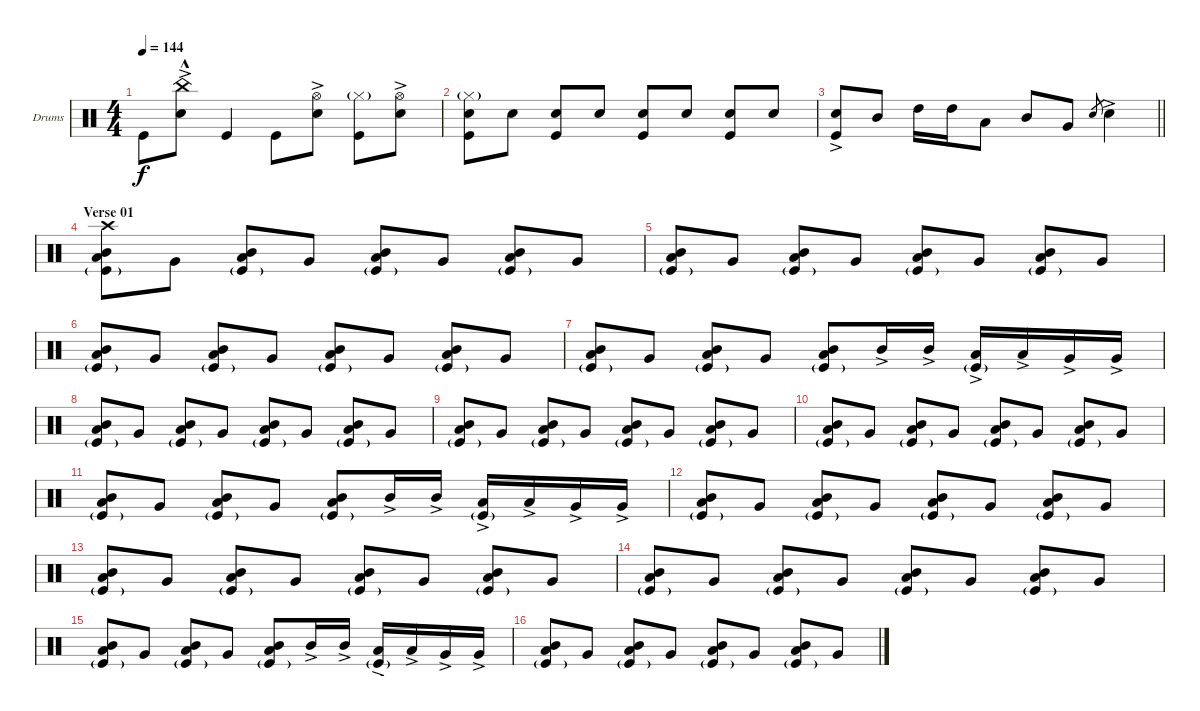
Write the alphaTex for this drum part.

\bracketExtendMode groupsimilarinstruments
\firstSystemTrackNameOrientation horizontal
\otherSystemsTrackNameOrientation horizontal
\track ("Drumkit" "Drums") {instrument percussion}
\staff {score}
\articulation defaults
\ts (4 4)
\tempo 144
\clef neutral
\ks c "Kick (hit)".8{dy f}
("Snare (hit) 2"{ac} "China (hit)"{hac}).8 "Kick (hit)".4 "Kick (hit)".8 ("Hi-Hat (open)" "Snare (hit) 2"{ac}).8 ("Kick (hit)" "Hi-Hat (closed)"{g}).8 ("Hi-Hat (open)" "Snare (hit) 2"{ac}).8 |
("Snare (hit) 2" "Kick (hit)" "Hi-Hat (closed)"{g}).8 "Snare (hit) 2".8 ("Snare (hit) 2" "Kick (hit)").8 "Snare (hit) 2".8 ("Snare (hit) 2" "Kick (hit)").8 "Snare (hit) 2".8 ("Snare (hit) 2" "Kick (hit)").8 "Snare (hit) 2".8 |
\barLineRight lightlight
("Snare (hit) 2"{ac} "Kick (hit)").8 "Mid Tom (hit)".8 "High Tom (hit)".16 "High Tom (hit)".16 "Low Tom (hit)".8 "Mid Tom (hit)".8 "Very Low Tom (hit)".8 "Snare (hit) 2".8{gr} "Snare (hit) 2"{ac}.4 |
\section ("" "Verse 01")
("Crash high (hit)" "Low Tom (hit)" "Mid Tom (hit)" "Kick (hit)"{g}).8 "Very Low Tom (hit)".8 ("Low Tom (hit)" "Mid Tom (hit)" "Kick (hit)"{g}).8 "Very Low Tom (hit)".8 ("Low Tom (hit)" "Mid Tom (hit)" "Kick (hit)"{g}).8 "Very Low Tom (hit)".8 ("Low Tom (hit)" "Mid Tom (hit)" "Kick (hit)"{g}).8 "Very Low Tom (hit)".8 |
("Low Tom (hit)" "Mid Tom (hit)" "Kick (hit)"{g}).8 "Very Low Tom (hit)".8 ("Low Tom (hit)" "Mid Tom (hit)" "Kick (hit)"{g}).8 "Very Low Tom (hit)".8 ("Low Tom (hit)" "Mid Tom (hit)" "Kick (hit)"{g}).8 "Very Low Tom (hit)".8 ("Low Tom (hit)" "Mid Tom (hit)" "Kick (hit)"{g}).8 "Very Low Tom (hit)".8 |
("Low Tom (hit)" "Mid Tom (hit)" "Kick (hit)"{g}).8 "Very Low Tom (hit)".8 ("Low Tom (hit)" "Mid Tom (hit)" "Kick (hit)"{g}).8 "Very Low Tom (hit)".8 ("Low Tom (hit)" "Mid Tom (hit)" "Kick (hit)"{g}).8 "Very Low Tom (hit)".8 ("Low Tom (hit)" "Mid Tom (hit)" "Kick (hit)"{g}).8 "Very Low Tom (hit)".8 |
("Low Tom (hit)" "Mid Tom (hit)" "Kick (hit)"{g}).8 "Very Low Tom (hit)".8 ("Low Tom (hit)" "Mid Tom (hit)" "Kick (hit)"{g}).8 "Very Low Tom (hit)".8 ("Low Tom (hit)" "Mid Tom (hit)" "Kick (hit)"{g}).8 "Mid Tom (hit)"{ac}.16 "Mid Tom (hit)"{ac}.16 ("Low Tom (hit)"{ac} "Kick (hit)"{g}).16 "Low Tom (hit)"{ac}.16 "Very Low Tom (hit)"{ac}.16 "Very Low Tom (hit)"{ac}.16 |
("Low Tom (hit)" "Mid Tom (hit)" "Kick (hit)"{g}).8 "Very Low Tom (hit)".8 ("Low Tom (hit)" "Mid Tom (hit)" "Kick (hit)"{g}).8 "Very Low Tom (hit)".8 ("Low Tom (hit)" "Mid Tom (hit)" "Kick (hit)"{g}).8 "Very Low Tom (hit)".8 ("Low Tom (hit)" "Mid Tom (hit)" "Kick (hit)"{g}).8 "Very Low Tom (hit)".8 |
("Low Tom (hit)" "Mid Tom (hit)" "Kick (hit)"{g}).8 "Very Low Tom (hit)".8 ("Low Tom (hit)" "Mid Tom (hit)" "Kick (hit)"{g}).8 "Very Low Tom (hit)".8 ("Low Tom (hit)" "Mid Tom (hit)" "Kick (hit)"{g}).8 "Very Low Tom (hit)".8 ("Low Tom (hit)" "Mid Tom (hit)" "Kick (hit)"{g}).8 "Very Low Tom (hit)".8 |
("Low Tom (hit)" "Mid Tom (hit)" "Kick (hit)"{g}).8 "Very Low Tom (hit)".8 ("Low Tom (hit)" "Mid Tom (hit)" "Kick (hit)"{g}).8 "Very Low Tom (hit)".8 ("Low Tom (hit)" "Mid Tom (hit)" "Kick (hit)"{g}).8 "Very Low Tom (hit)".8 ("Low Tom (hit)" "Mid Tom (hit)" "Kick (hit)"{g}).8 "Very Low Tom (hit)".8 |
("Low Tom (hit)" "Mid Tom (hit)" "Kick (hit)"{g}).8 "Very Low Tom (hit)".8 ("Low Tom (hit)" "Mid Tom (hit)" "Kick (hit)"{g}).8 "Very Low Tom (hit)".8 ("Low Tom (hit)" "Mid Tom (hit)" "Kick (hit)"{g}).8 "Mid Tom (hit)"{ac}.16 "Mid Tom (hit)"{ac}.16 ("Low Tom (hit)"{ac} "Kick (hit)"{g}).16 "Low Tom (hit)"{ac}.16 "Very Low Tom (hit)"{ac}.16 "Very Low Tom (hit)"{ac}.16 |
("Low Tom (hit)" "Mid Tom (hit)" "Kick (hit)"{g}).8 "Very Low Tom (hit)".8 ("Low Tom (hit)" "Mid Tom (hit)" "Kick (hit)"{g}).8 "Very Low Tom (hit)".8 ("Low Tom (hit)" "Mid Tom (hit)" "Kick (hit)"{g}).8 "Very Low Tom (hit)".8 ("Low Tom (hit)" "Mid Tom (hit)" "Kick (hit)"{g}).8 "Very Low Tom (hit)".8 |
("Low Tom (hit)" "Mid Tom (hit)" "Kick (hit)"{g}).8 "Very Low Tom (hit)".8 ("Low Tom (hit)" "Mid Tom (hit)" "Kick (hit)"{g}).8 "Very Low Tom (hit)".8 ("Low Tom (hit)" "Mid Tom (hit)" "Kick (hit)"{g}).8 "Very Low Tom (hit)".8 ("Low Tom (hit)" "Mid Tom (hit)" "Kick (hit)"{g}).8 "Very Low Tom (hit)".8 |
("Low Tom (hit)" "Mid Tom (hit)" "Kick (hit)"{g}).8 "Very Low Tom (hit)".8 ("Low Tom (hit)" "Mid Tom (hit)" "Kick (hit)"{g}).8 "Very Low Tom (hit)".8 ("Low Tom (hit)" "Mid Tom (hit)" "Kick (hit)"{g}).8 "Very Low Tom (hit)".8 ("Low Tom (hit)" "Mid Tom (hit)" "Kick (hit)"{g}).8 "Very Low Tom (hit)".8 |
("Low Tom (hit)" "Mid Tom (hit)" "Kick (hit)"{g}).8 "Very Low Tom (hit)".8 ("Low Tom (hit)" "Mid Tom (hit)" "Kick (hit)"{g}).8 "Very Low Tom (hit)".8 ("Low Tom (hit)" "Mid Tom (hit)" "Kick (hit)"{g}).8 "Mid Tom (hit)"{ac}.16 "Mid Tom (hit)"{ac}.16 ("Low Tom (hit)"{ac} "Kick (hit)"{g}).16 "Low Tom (hit)"{ac}.16 "Very Low Tom (hit)"{ac}.16 "Very Low Tom (hit)"{ac}.16 |
("Low Tom (hit)" "Mid Tom (hit)" "Kick (hit)"{g}).8 "Very Low Tom (hit)".8 ("Low Tom (hit)" "Mid Tom (hit)" "Kick (hit)"{g}).8 "Very Low Tom (hit)".8 ("Low Tom (hit)" "Mid Tom (hit)" "Kick (hit)"{g}).8 "Very Low Tom (hit)".8 ("Low Tom (hit)" "Mid Tom (hit)" "Kick (hit)"{g}).8 "Very Low Tom (hit)".8
